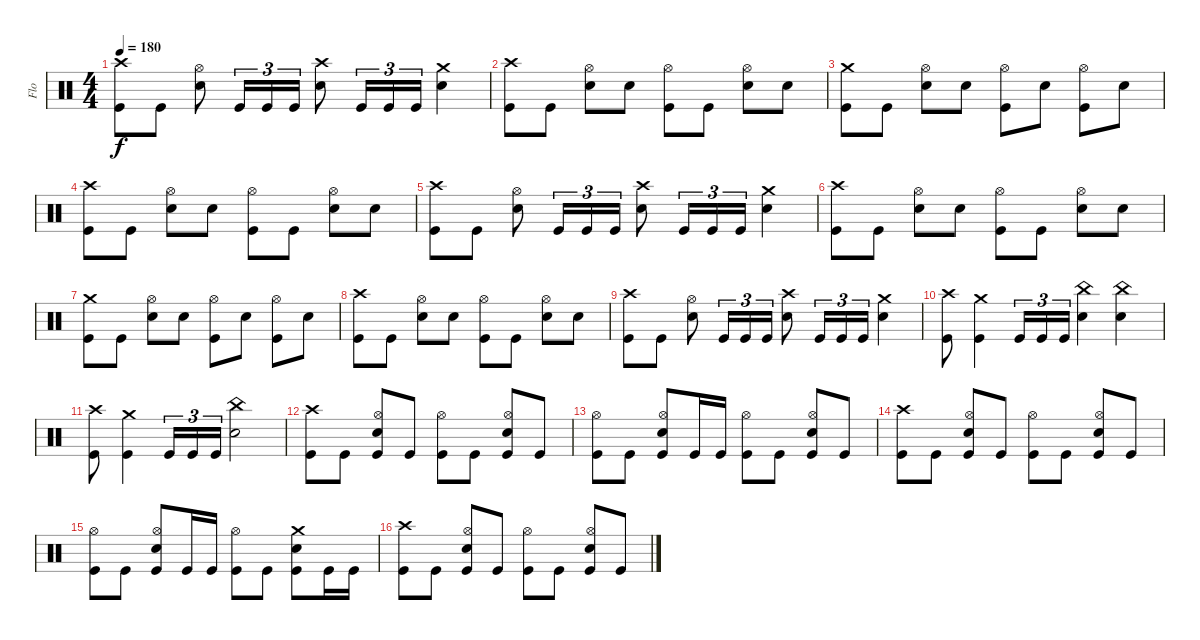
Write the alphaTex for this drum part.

\track ("Flo" "Flo") {instrument percussion}
\staff {score}
\articulation defaults
\ts (4 4)
\tempo 180
\clef neutral
\ks c
("Crash high (hit)" "Kick (hit)").8{dy f} "Kick (hit)".8 ("Hi-Hat (open)" "Snare (hit) 2").8 "Kick (hit)".16{tu (3 2)} "Kick (hit)".16{tu (3 2)} "Kick (hit)".16{tu (3 2)} ("Crash high (hit)" "Snare (hit) 2").8 "Kick (hit)".16{tu (3 2)} "Kick (hit)".16{tu (3 2)} "Kick (hit)".16{tu (3 2)} ("Crash medium (hit)" "Snare (hit) 2").4 |
("Crash high (hit)" "Kick (hit)").8 "Kick (hit)".8 ("Hi-Hat (open)" "Snare (hit) 2").8 "Snare (hit) 2".8 ("Hi-Hat (open)" "Kick (hit)").8 "Kick (hit)".8 ("Hi-Hat (open)" "Snare (hit) 2").8 "Snare (hit) 2".8 |
("Crash medium (hit)" "Kick (hit)").8 "Kick (hit)".8 ("Hi-Hat (open)" "Snare (hit) 2").8 "Snare (hit) 2".8 ("Hi-Hat (open)" "Kick (hit)").8 "Snare (hit) 2".8 ("Hi-Hat (open)" "Kick (hit)").8 "Snare (hit) 2".8 |
("Crash high (hit)" "Kick (hit)").8 "Kick (hit)".8 ("Hi-Hat (open)" "Snare (hit) 2").8 "Snare (hit) 2".8 ("Hi-Hat (open)" "Kick (hit)").8 "Kick (hit)".8 ("Hi-Hat (open)" "Snare (hit) 2").8 "Snare (hit) 2".8 |
("Crash high (hit)" "Kick (hit)").8 "Kick (hit)".8 ("Hi-Hat (open)" "Snare (hit) 2").8 "Kick (hit)".16{tu (3 2)} "Kick (hit)".16{tu (3 2)} "Kick (hit)".16{tu (3 2)} ("Crash high (hit)" "Snare (hit) 2").8 "Kick (hit)".16{tu (3 2)} "Kick (hit)".16{tu (3 2)} "Kick (hit)".16{tu (3 2)} ("Crash medium (hit)" "Snare (hit) 2").4 |
("Crash high (hit)" "Kick (hit)").8 "Kick (hit)".8 ("Hi-Hat (open)" "Snare (hit) 2").8 "Snare (hit) 2".8 ("Hi-Hat (open)" "Kick (hit)").8 "Kick (hit)".8 ("Hi-Hat (open)" "Snare (hit) 2").8 "Snare (hit) 2".8 |
("Crash medium (hit)" "Kick (hit)").8 "Kick (hit)".8 ("Hi-Hat (open)" "Snare (hit) 2").8 "Snare (hit) 2".8 ("Hi-Hat (open)" "Kick (hit)").8 "Snare (hit) 2".8 ("Hi-Hat (open)" "Kick (hit)").8 "Snare (hit) 2".8 |
("Crash high (hit)" "Kick (hit)").8 "Kick (hit)".8 ("Hi-Hat (open)" "Snare (hit) 2").8 "Snare (hit) 2".8 ("Hi-Hat (open)" "Kick (hit)").8 "Kick (hit)".8 ("Hi-Hat (open)" "Snare (hit) 2").8 "Snare (hit) 2".8 |
("Crash high (hit)" "Kick (hit)").8 "Kick (hit)".8 ("Hi-Hat (open)" "Snare (hit) 2").8 "Kick (hit)".16{tu (3 2)} "Kick (hit)".16{tu (3 2)} "Kick (hit)".16{tu (3 2)} ("Crash high (hit)" "Snare (hit) 2").8 "Kick (hit)".16{tu (3 2)} "Kick (hit)".16{tu (3 2)} "Kick (hit)".16{tu (3 2)} ("Crash medium (hit)" "Snare (hit) 2").4 |
("Crash high (hit)" "Kick (hit)").8 ("Crash medium (hit)" "Kick (hit)").4 "Kick (hit)".16{tu (3 2)} "Kick (hit)".16{tu (3 2)} "Kick (hit)".16{tu (3 2)} ("China (hit)" "Snare (hit) 2").4 ("China (hit)" "Snare (hit) 2").4 |
("Crash high (hit)" "Kick (hit)").8 ("Crash medium (hit)" "Kick (hit)").4 "Kick (hit)".16{tu (3 2)} "Kick (hit)".16{tu (3 2)} "Kick (hit)".16{tu (3 2)} ("China (hit)" "Snare (hit) 2").2 |
("Crash high (hit)" "Kick (hit)").8 "Kick (hit)".8 ("Hi-Hat (open)" "Snare (hit) 2" "Kick (hit)").8 "Kick (hit)".8 ("Hi-Hat (open)" "Kick (hit)").8 "Kick (hit)".8 ("Hi-Hat (open)" "Snare (hit) 2" "Kick (hit)").8 "Kick (hit)".8 |
("Hi-Hat (open)" "Kick (hit)").8 "Kick (hit)".8 ("Hi-Hat (open)" "Snare (hit) 2" "Kick (hit)").8 "Kick (hit)".16 "Kick (hit)".16 ("Hi-Hat (open)" "Kick (hit)").8 "Kick (hit)".8 ("Hi-Hat (open)" "Snare (hit) 2" "Kick (hit)").8 "Kick (hit)".8 |
("Crash high (hit)" "Kick (hit)").8 "Kick (hit)".8 ("Hi-Hat (open)" "Snare (hit) 2" "Kick (hit)").8 "Kick (hit)".8 ("Hi-Hat (open)" "Kick (hit)").8 "Kick (hit)".8 ("Hi-Hat (open)" "Snare (hit) 2" "Kick (hit)").8 "Kick (hit)".8 |
("Hi-Hat (open)" "Kick (hit)").8 "Kick (hit)".8 ("Hi-Hat (open)" "Snare (hit) 2" "Kick (hit)").8 "Kick (hit)".16 "Kick (hit)".16 ("Hi-Hat (open)" "Kick (hit)").8 "Kick (hit)".8 ("Crash medium (hit)" "Snare (hit) 2" "Kick (hit)").8 "Kick (hit)".16 "Kick (hit)".16 |
("Crash high (hit)" "Kick (hit)").8 "Kick (hit)".8 ("Hi-Hat (open)" "Snare (hit) 2" "Kick (hit)").8 "Kick (hit)".8 ("Hi-Hat (open)" "Kick (hit)").8 "Kick (hit)".8 ("Hi-Hat (open)" "Snare (hit) 2" "Kick (hit)").8 "Kick (hit)".8
